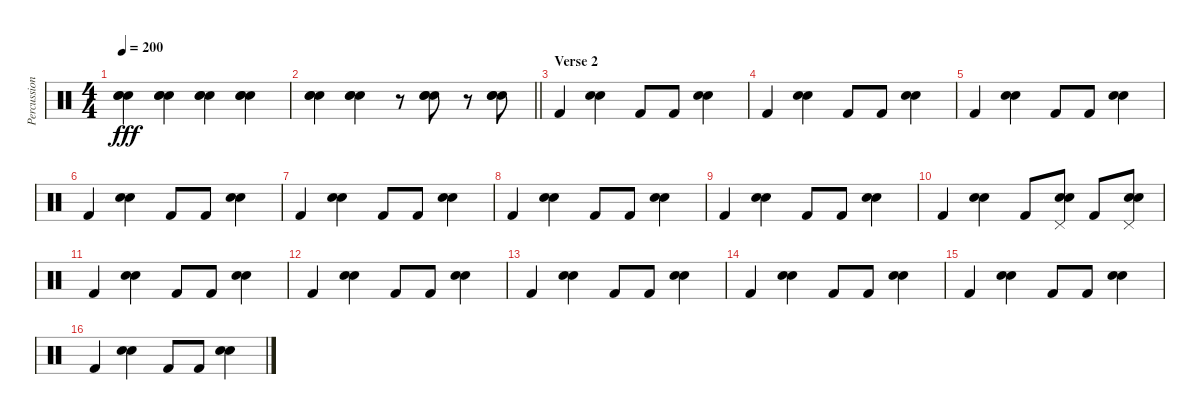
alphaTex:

\track ("Percussions" "Percussion") {instrument percussion}
\staff {score}
\articulation defaults
\ts (4 4)
\tempo 200
\clef neutral
\ks c
("Electric Snare (hit)" "Electric Snare (hit)" "Electric Snare (hit)").4{dy fff} ("Electric Snare (hit)" "Electric Snare (hit)" "Electric Snare (hit)").4 ("Electric Snare (hit)" "Electric Snare (hit)" "Electric Snare (hit)").4 ("Electric Snare (hit)" "Electric Snare (hit)" "Electric Snare (hit)").4 |
\barLineRight lightlight
("Electric Snare (hit)" "Electric Snare (hit)" "Electric Snare (hit)").4 ("Electric Snare (hit)" "Electric Snare (hit)" "Electric Snare (hit)").4 r.8 ("Electric Snare (hit)" "Electric Snare (hit)" "Electric Snare (hit)").8 r.8 ("Electric Snare (hit)" "Electric Snare (hit)" "Electric Snare (hit)").8 |
\section ("" "Verse 2")
"Kick (hit) 2".4 ("Electric Snare (hit)" "Electric Snare (hit)").4 "Kick (hit) 2".8 "Kick (hit) 2".8 ("Electric Snare (hit)" "Electric Snare (hit)").4 |
"Kick (hit) 2".4 ("Electric Snare (hit)" "Electric Snare (hit)").4 "Kick (hit) 2".8 "Kick (hit) 2".8 ("Electric Snare (hit)" "Electric Snare (hit)").4 |
"Kick (hit) 2".4 ("Electric Snare (hit)" "Electric Snare (hit)").4 "Kick (hit) 2".8 "Kick (hit) 2".8 ("Electric Snare (hit)" "Electric Snare (hit)").4 |
"Kick (hit) 2".4 ("Electric Snare (hit)" "Electric Snare (hit)").4 "Kick (hit) 2".8 "Kick (hit) 2".8 ("Electric Snare (hit)" "Electric Snare (hit)").4 |
"Kick (hit) 2".4 ("Electric Snare (hit)" "Electric Snare (hit)").4 "Kick (hit) 2".8 "Kick (hit) 2".8 ("Electric Snare (hit)" "Electric Snare (hit)").4 |
"Kick (hit) 2".4 ("Electric Snare (hit)" "Electric Snare (hit)").4 "Kick (hit) 2".8 "Kick (hit) 2".8 ("Electric Snare (hit)" "Electric Snare (hit)").4 |
"Kick (hit) 2".4 ("Electric Snare (hit)" "Electric Snare (hit)").4 "Kick (hit) 2".8 "Kick (hit) 2".8 ("Electric Snare (hit)" "Electric Snare (hit)").4 |
"Kick (hit) 2".4 ("Electric Snare (hit)" "Electric Snare (hit)").4 "Kick (hit) 2".8 ("Pedal Hi-Hat (hit)" "Electric Snare (hit)" "Electric Snare (hit)").8 "Kick (hit) 2".8 ("Pedal Hi-Hat (hit)" "Electric Snare (hit)" "Electric Snare (hit)").8 |
"Kick (hit) 2".4 ("Electric Snare (hit)" "Electric Snare (hit)").4 "Kick (hit) 2".8 "Kick (hit) 2".8 ("Electric Snare (hit)" "Electric Snare (hit)").4 |
"Kick (hit) 2".4 ("Electric Snare (hit)" "Electric Snare (hit)").4 "Kick (hit) 2".8 "Kick (hit) 2".8 ("Electric Snare (hit)" "Electric Snare (hit)").4 |
"Kick (hit) 2".4 ("Electric Snare (hit)" "Electric Snare (hit)").4 "Kick (hit) 2".8 "Kick (hit) 2".8 ("Electric Snare (hit)" "Electric Snare (hit)").4 |
"Kick (hit) 2".4 ("Electric Snare (hit)" "Electric Snare (hit)").4 "Kick (hit) 2".8 "Kick (hit) 2".8 ("Electric Snare (hit)" "Electric Snare (hit)").4 |
"Kick (hit) 2".4 ("Electric Snare (hit)" "Electric Snare (hit)").4 "Kick (hit) 2".8 "Kick (hit) 2".8 ("Electric Snare (hit)" "Electric Snare (hit)").4 |
"Kick (hit) 2".4 ("Electric Snare (hit)" "Electric Snare (hit)").4 "Kick (hit) 2".8 "Kick (hit) 2".8 ("Electric Snare (hit)" "Electric Snare (hit)").4
